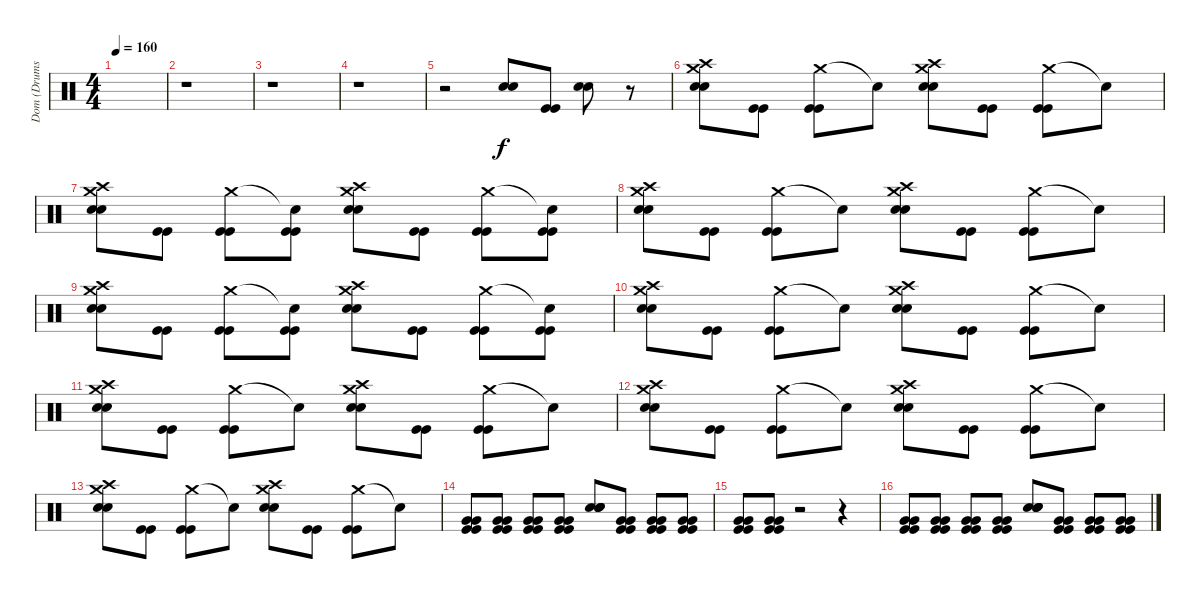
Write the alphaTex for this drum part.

\track ("Dom (Drums)" "Dom (Drums") {instrument percussion}
\staff {score}
\articulation defaults
\ts (4 4)
\tempo 160
\clef neutral
\ks c
|
r.1 |
r.1 |
r.1 |
r.2 ("Snare (hit) 2" "Snare (hit) 2").8 ("Kick (hit)" "Kick (hit)").8 ("Snare (hit) 2" "Snare (hit) 2").8 r.8 |
("Crash medium (hit)" "Crash high (hit)" "Snare (hit) 2" "Snare (hit) 2").8 ("Kick (hit)" "Kick (hit)").8 ("Crash medium (hit)" "Kick (hit)" "Kick (hit)").8 "Snare (hit)"{t}.8 ("Crash medium (hit)" "Crash high (hit)" "Snare (hit) 2" "Snare (hit) 2").8 ("Kick (hit)" "Kick (hit)").8 ("Crash medium (hit)" "Kick (hit)" "Kick (hit)").8 "Snare (hit)"{t}.8 |
("Crash medium (hit)" "Crash high (hit)" "Snare (hit) 2" "Snare (hit) 2").8 ("Kick (hit)" "Kick (hit)").8 ("Crash medium (hit)" "Kick (hit)" "Kick (hit)").8 ("Snare (hit)"{t} "Kick (hit)" "Kick (hit)").8 ("Crash medium (hit)" "Crash high (hit)" "Snare (hit) 2" "Snare (hit) 2").8 ("Kick (hit)" "Kick (hit)").8 ("Crash medium (hit)" "Kick (hit)" "Kick (hit)").8 ("Snare (hit)"{t} "Kick (hit)" "Kick (hit)").8 |
("Crash medium (hit)" "Crash high (hit)" "Snare (hit) 2" "Snare (hit) 2").8 ("Kick (hit)" "Kick (hit)").8 ("Crash medium (hit)" "Kick (hit)" "Kick (hit)").8 "Snare (hit)"{t}.8 ("Crash medium (hit)" "Crash high (hit)" "Snare (hit) 2" "Snare (hit) 2").8 ("Kick (hit)" "Kick (hit)").8 ("Crash medium (hit)" "Kick (hit)" "Kick (hit)").8 "Snare (hit)"{t}.8 |
("Crash medium (hit)" "Crash high (hit)" "Snare (hit) 2" "Snare (hit) 2").8 ("Kick (hit)" "Kick (hit)").8 ("Crash medium (hit)" "Kick (hit)" "Kick (hit)").8 ("Snare (hit)"{t} "Kick (hit)" "Kick (hit)").8 ("Crash medium (hit)" "Crash high (hit)" "Snare (hit) 2" "Snare (hit) 2").8 ("Kick (hit)" "Kick (hit)").8 ("Crash medium (hit)" "Kick (hit)" "Kick (hit)").8 ("Snare (hit)"{t} "Kick (hit)" "Kick (hit)").8 |
("Crash medium (hit)" "Crash high (hit)" "Snare (hit) 2" "Snare (hit) 2").8 ("Kick (hit)" "Kick (hit)").8 ("Crash medium (hit)" "Kick (hit)" "Kick (hit)").8 "Snare (hit)"{t}.8 ("Crash medium (hit)" "Crash high (hit)" "Snare (hit) 2" "Snare (hit) 2").8 ("Kick (hit)" "Kick (hit)").8 ("Crash medium (hit)" "Kick (hit)" "Kick (hit)").8 "Snare (hit)"{t}.8 |
("Crash medium (hit)" "Crash high (hit)" "Snare (hit) 2" "Snare (hit) 2").8 ("Kick (hit)" "Kick (hit)").8 ("Crash medium (hit)" "Kick (hit)" "Kick (hit)").8 "Snare (hit)"{t}.8 ("Crash medium (hit)" "Crash high (hit)" "Snare (hit) 2" "Snare (hit) 2").8 ("Kick (hit)" "Kick (hit)").8 ("Crash medium (hit)" "Kick (hit)" "Kick (hit)").8 "Snare (hit)"{t}.8 |
("Crash medium (hit)" "Crash high (hit)" "Snare (hit) 2" "Snare (hit) 2").8 ("Kick (hit)" "Kick (hit)").8 ("Crash medium (hit)" "Kick (hit)" "Kick (hit)").8 "Snare (hit)"{t}.8 ("Crash medium (hit)" "Crash high (hit)" "Snare (hit) 2" "Snare (hit) 2").8 ("Kick (hit)" "Kick (hit)").8 ("Crash medium (hit)" "Kick (hit)" "Kick (hit)").8 "Snare (hit)"{t}.8 |
("Crash medium (hit)" "Crash high (hit)" "Snare (hit) 2" "Snare (hit) 2").8 ("Kick (hit)" "Kick (hit)").8 ("Crash medium (hit)" "Kick (hit)" "Kick (hit)").8 "Snare (hit)"{t}.8 ("Crash medium (hit)" "Crash high (hit)" "Snare (hit) 2" "Snare (hit) 2").8 ("Kick (hit)" "Kick (hit)").8 ("Crash medium (hit)" "Kick (hit)" "Kick (hit)").8 "Snare (hit)"{t}.8 |
("Very Low Tom (hit)" "Very Low Tom (hit)" "Kick (hit)" "Kick (hit)").8{volume 10} ("Very Low Tom (hit)" "Very Low Tom (hit)" "Kick (hit)" "Kick (hit)").8 ("Very Low Tom (hit)" "Very Low Tom (hit)" "Kick (hit)" "Kick (hit)").8 ("Very Low Tom (hit)" "Very Low Tom (hit)" "Kick (hit)" "Kick (hit)").8 ("Snare (hit) 2" "Snare (hit) 2" "Snare (hit) 2" "Snare (hit) 2").8 ("Very Low Tom (hit)" "Very Low Tom (hit)" "Kick (hit)" "Kick (hit)").8 ("Very Low Tom (hit)" "Very Low Tom (hit)" "Kick (hit)" "Kick (hit)").8 ("Very Low Tom (hit)" "Very Low Tom (hit)" "Kick (hit)" "Kick (hit)").8 |
("Very Low Tom (hit)" "Very Low Tom (hit)" "Kick (hit)" "Kick (hit)").8 ("Very Low Tom (hit)" "Very Low Tom (hit)" "Kick (hit)" "Kick (hit)").8 r.2 r.4 |
("Very Low Tom (hit)" "Very Low Tom (hit)" "Kick (hit)" "Kick (hit)").8 ("Very Low Tom (hit)" "Very Low Tom (hit)" "Kick (hit)" "Kick (hit)").8 ("Very Low Tom (hit)" "Very Low Tom (hit)" "Kick (hit)" "Kick (hit)").8 ("Very Low Tom (hit)" "Very Low Tom (hit)" "Kick (hit)" "Kick (hit)").8 ("Snare (hit) 2" "Snare (hit) 2" "Snare (hit) 2" "Snare (hit) 2").8 ("Very Low Tom (hit)" "Very Low Tom (hit)" "Kick (hit)" "Kick (hit)").8 ("Very Low Tom (hit)" "Very Low Tom (hit)" "Kick (hit)" "Kick (hit)").8 ("Very Low Tom (hit)" "Very Low Tom (hit)" "Kick (hit)" "Kick (hit)").8
